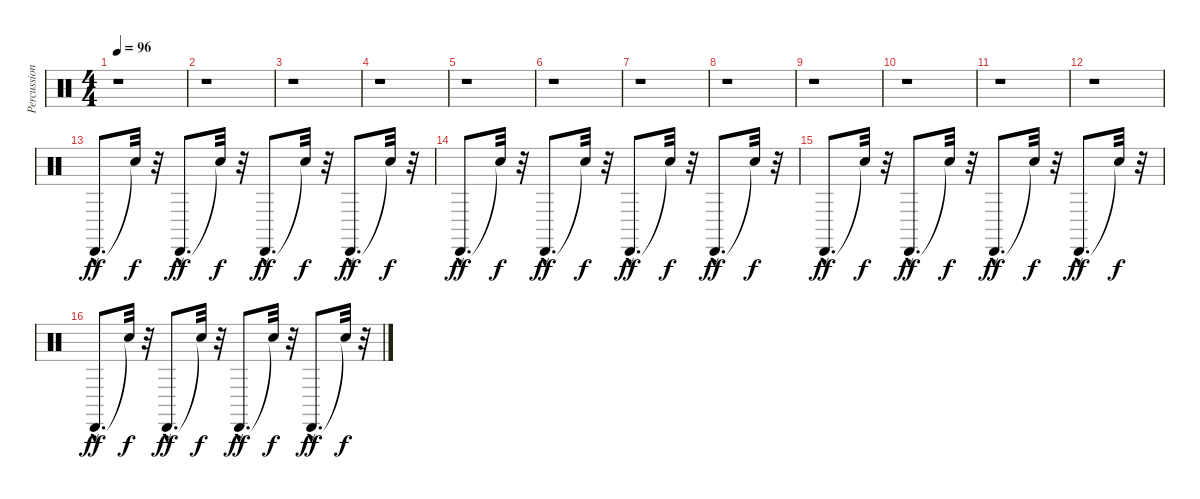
\track ("Percussion 2" "Percussion") {instrument percussion}
\staff {score}
\articulation defaults
\ts (4 4)
\tempo 96
\clef neutral
\ks c
r.1{dy ff} |
r.1 |
r.1 |
r.1 |
r.1 |
r.1 |
r.1 |
r.1 |
r.1 |
r.1 |
r.1 |
r.1 |
"Cabasa (hit)"{hac}.8{d} "Snare (hit)"{t}.32{dy f} r.32 "Cabasa (hit)"{hac}.8{d dy ff} "Snare (hit)"{t}.32{dy f} r.32 "Cabasa (hit)"{hac}.8{d dy ff} "Snare (hit)"{t}.32{dy f} r.32 "Cabasa (hit)"{hac}.8{d dy ff} "Snare (hit)"{t}.32{dy f} r.32 |
"Cabasa (hit)"{hac}.8{d dy ff} "Snare (hit)"{t}.32{dy f} r.32 "Cabasa (hit)"{hac}.8{d dy ff} "Snare (hit)"{t}.32{dy f} r.32 "Cabasa (hit)"{hac}.8{d dy ff} "Snare (hit)"{t}.32{dy f} r.32 "Cabasa (hit)"{hac}.8{d dy ff} "Snare (hit)"{t}.32{dy f} r.32 |
"Cabasa (hit)"{hac}.8{d dy ff} "Snare (hit)"{t}.32{dy f} r.32 "Cabasa (hit)"{hac}.8{d dy ff} "Snare (hit)"{t}.32{dy f} r.32 "Cabasa (hit)"{hac}.8{d dy ff} "Snare (hit)"{t}.32{dy f} r.32 "Cabasa (hit)"{hac}.8{d dy ff} "Snare (hit)"{t}.32{dy f} r.32 |
"Cabasa (hit)"{hac}.8{d dy ff} "Snare (hit)"{t}.32{dy f} r.32 "Cabasa (hit)"{hac}.8{d dy ff} "Snare (hit)"{t}.32{dy f} r.32 "Cabasa (hit)"{hac}.8{d dy ff} "Snare (hit)"{t}.32{dy f} r.32 "Cabasa (hit)"{hac}.8{d dy ff} "Snare (hit)"{t}.32{dy f} r.32
